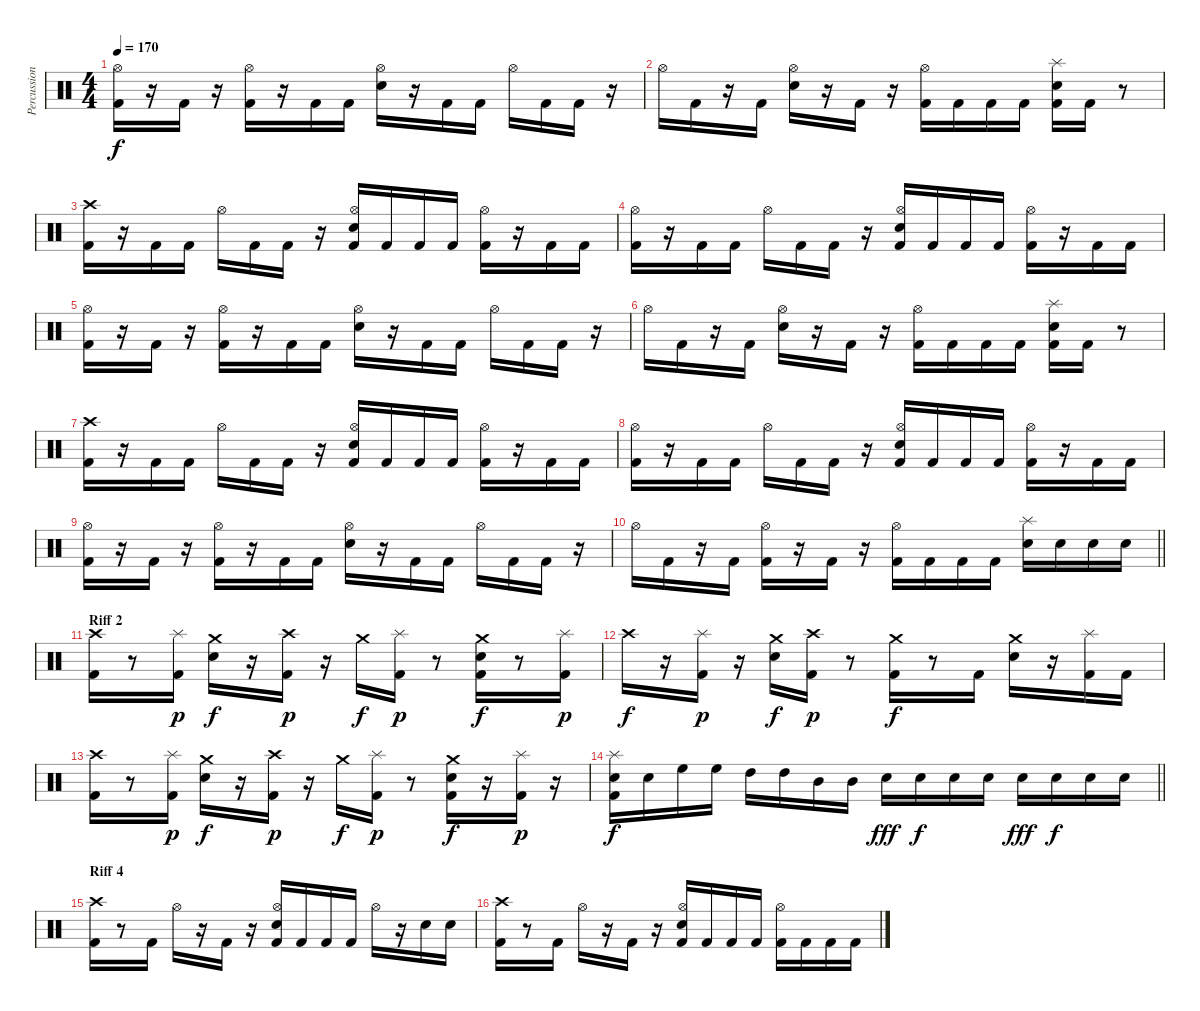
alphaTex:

\track ("Percussion" "Percussion") {instrument percussion}
\staff {score}
\articulation defaults
\ts (4 4)
\tempo 170
\clef neutral
\ks c
("Kick (hit) 2" "Hi-Hat (open)").16{dy f} r.16 "Kick (hit) 2".16 r.16 ("Kick (hit) 2" "Hi-Hat (open)").16 r.16 "Kick (hit) 2".16 "Kick (hit) 2".16 ("Snare (hit) 2" "Hi-Hat (open)").16 r.16 "Kick (hit) 2".16 "Kick (hit) 2".16 "Hi-Hat (open)".16 "Kick (hit) 2".16 "Kick (hit) 2".16 r.16 |
"Hi-Hat (open)".16 "Kick (hit) 2".16 r.16 "Kick (hit) 2".16 ("Snare (hit) 2" "Hi-Hat (open)").16 r.16 "Kick (hit) 2".16 r.16 ("Kick (hit) 2" "Hi-Hat (open)").16 "Kick (hit) 2".16 "Kick (hit) 2".16 "Kick (hit) 2".16 ("Kick (hit) 2" "Snare (hit) 2" "Splash (hit)").16 "Kick (hit) 2".16 r.8 |
("Kick (hit) 2" "Crash high (hit)").16 r.16 "Kick (hit) 2".16 "Kick (hit) 2".16 "Hi-Hat (open)".16 "Kick (hit) 2".16 "Kick (hit) 2".16 r.16 ("Kick (hit) 2" "Snare (hit) 2" "Hi-Hat (open)").16 "Kick (hit) 2".16 "Kick (hit) 2".16 "Kick (hit) 2".16 ("Kick (hit) 2" "Hi-Hat (open)").16 r.16 "Kick (hit) 2".16 "Kick (hit) 2".16 |
("Kick (hit) 2" "Hi-Hat (open)").16 r.16 "Kick (hit) 2".16 "Kick (hit) 2".16 "Hi-Hat (open)".16 "Kick (hit) 2".16 "Kick (hit) 2".16 r.16 ("Kick (hit) 2" "Snare (hit) 2" "Hi-Hat (open)").16 "Kick (hit) 2".16 "Kick (hit) 2".16 "Kick (hit) 2".16 ("Kick (hit) 2" "Hi-Hat (open)").16 r.16 "Kick (hit) 2".16 "Kick (hit) 2".16 |
("Kick (hit) 2" "Hi-Hat (open)").16 r.16 "Kick (hit) 2".16 r.16 ("Kick (hit) 2" "Hi-Hat (open)").16 r.16 "Kick (hit) 2".16 "Kick (hit) 2".16 ("Snare (hit) 2" "Hi-Hat (open)").16 r.16 "Kick (hit) 2".16 "Kick (hit) 2".16 "Hi-Hat (open)".16 "Kick (hit) 2".16 "Kick (hit) 2".16 r.16 |
"Hi-Hat (open)".16 "Kick (hit) 2".16 r.16 "Kick (hit) 2".16 ("Snare (hit) 2" "Hi-Hat (open)").16 r.16 "Kick (hit) 2".16 r.16 ("Kick (hit) 2" "Hi-Hat (open)").16 "Kick (hit) 2".16 "Kick (hit) 2".16 "Kick (hit) 2".16 ("Kick (hit) 2" "Snare (hit) 2" "Splash (hit)").16 "Kick (hit) 2".16 r.8 |
("Kick (hit) 2" "Crash high (hit)").16 r.16 "Kick (hit) 2".16 "Kick (hit) 2".16 "Hi-Hat (open)".16 "Kick (hit) 2".16 "Kick (hit) 2".16 r.16 ("Kick (hit) 2" "Snare (hit) 2" "Hi-Hat (open)").16 "Kick (hit) 2".16 "Kick (hit) 2".16 "Kick (hit) 2".16 ("Kick (hit) 2" "Hi-Hat (open)").16 r.16 "Kick (hit) 2".16 "Kick (hit) 2".16 |
("Kick (hit) 2" "Hi-Hat (open)").16 r.16 "Kick (hit) 2".16 "Kick (hit) 2".16 "Hi-Hat (open)".16 "Kick (hit) 2".16 "Kick (hit) 2".16 r.16 ("Kick (hit) 2" "Snare (hit) 2" "Hi-Hat (open)").16 "Kick (hit) 2".16 "Kick (hit) 2".16 "Kick (hit) 2".16 ("Kick (hit) 2" "Hi-Hat (open)").16 r.16 "Kick (hit) 2".16 "Kick (hit) 2".16 |
("Kick (hit) 2" "Hi-Hat (open)").16 r.16 "Kick (hit) 2".16 r.16 ("Kick (hit) 2" "Hi-Hat (open)").16 r.16 "Kick (hit) 2".16 "Kick (hit) 2".16 ("Snare (hit) 2" "Hi-Hat (open)").16 r.16 "Kick (hit) 2".16 "Kick (hit) 2".16 "Hi-Hat (open)".16 "Kick (hit) 2".16 "Kick (hit) 2".16 r.16 |
\barLineRight lightlight "Hi-Hat (open)".16 "Kick (hit) 2".16
r.16 "Kick (hit) 2".16 ("Kick (hit) 2" "Hi-Hat (open)").16 r.16 "Kick (hit) 2".16 r.16 ("Kick (hit) 2" "Hi-Hat (open)").16 "Kick (hit) 2".16 "Kick (hit) 2".16 "Kick (hit) 2".16 ("Snare (hit) 2" "Splash (hit)").16 "Snare (hit) 2".16 "Snare (hit) 2".16 "Snare (hit) 2".16 |
\section ("" "Riff 2")
("Kick (hit) 2" "Crash high (hit)").16 r.8 ("Kick (hit) 2" "Splash (hit)").16{dy p} ("Snare (hit) 2" "Crash medium (hit)").16{dy f} r.16 ("Kick (hit) 2" "Crash high (hit)").16{dy p} r.16 "Crash medium (hit)".16{dy f} ("Kick (hit) 2" "Splash (hit)").16{dy p} r.8 ("Kick (hit) 2" "Snare (hit) 2" "Crash medium (hit)").16{dy f} r.8 ("Kick (hit) 2" "Splash (hit)").16{dy p} |
"Crash high (hit)".16{dy f} r.16 ("Kick (hit) 2" "Splash (hit)").16{dy p} r.16 ("Snare (hit) 2" "Crash medium (hit)").16{dy f} ("Kick (hit) 2" "Crash high (hit)").16{dy p} r.8 ("Kick (hit) 2" "Crash medium (hit)").16{dy f} r.8 "Kick (hit) 2".16 ("Snare (hit) 2" "Crash medium (hit)").16 r.16 ("Kick (hit) 2" "Splash (hit)").16 "Kick (hit) 2".16 |
("Kick (hit) 2" "Crash high (hit)").16 r.8 ("Kick (hit) 2" "Splash (hit)").16{dy p} ("Snare (hit) 2" "Crash medium (hit)").16{dy f} r.16 ("Kick (hit) 2" "Crash high (hit)").16{dy p} r.16 "Crash medium (hit)".16{dy f} ("Kick (hit) 2" "Splash (hit)").16{dy p} r.8 ("Kick (hit) 2" "Snare (hit) 2" "Crash medium (hit)").16{dy f} r.16 ("Kick (hit) 2" "Splash (hit)").16{dy p} r.16 |
\barLineRight lightlight
("Kick (hit) 2" "Snare (hit) 2" "Splash (hit)").16{dy f} "Snare (hit) 2".16 "High Floor Tom (hit)".16 "High Floor Tom (hit)".16 "High Tom (hit)".16 "High Tom (hit)".16 "Mid Tom (hit)".16 "Mid Tom (hit)".16 "Snare (hit) 2".16{dy fff} "Snare (hit) 2".16{dy f} "Snare (hit) 2".16 "Snare (hit) 2".16 "Snare (hit) 2".16{dy fff} "Snare (hit) 2".16{dy f} "Snare (hit) 2".16 "Snare (hit) 2".16 |
\section ("" "Riff 4")
("Kick (hit) 2" "Crash high (hit)").16 r.8 "Kick (hit) 2".16 "Hi-Hat (open)".16 r.16 "Kick (hit) 2".16 r.16 ("Kick (hit) 2" "Snare (hit) 2" "Hi-Hat (open)").16 "Kick (hit) 2".16 "Kick (hit) 2".16 "Kick (hit) 2".16 "Hi-Hat (open)".16 r.16 "Snare (hit) 2".16 "Snare (hit) 2".16 |
("Kick (hit) 2" "Crash high (hit)").16 r.8 "Kick (hit) 2".16 "Hi-Hat (open)".16 r.16 "Kick (hit) 2".16 r.16 ("Kick (hit) 2" "Snare (hit) 2" "Hi-Hat (open)").16 "Kick (hit) 2".16 "Kick (hit) 2".16 "Kick (hit) 2".16 ("Kick (hit) 2" "Hi-Hat (open)").16 "Kick (hit) 2".16 "Kick (hit) 2".16 "Kick (hit) 2".16
